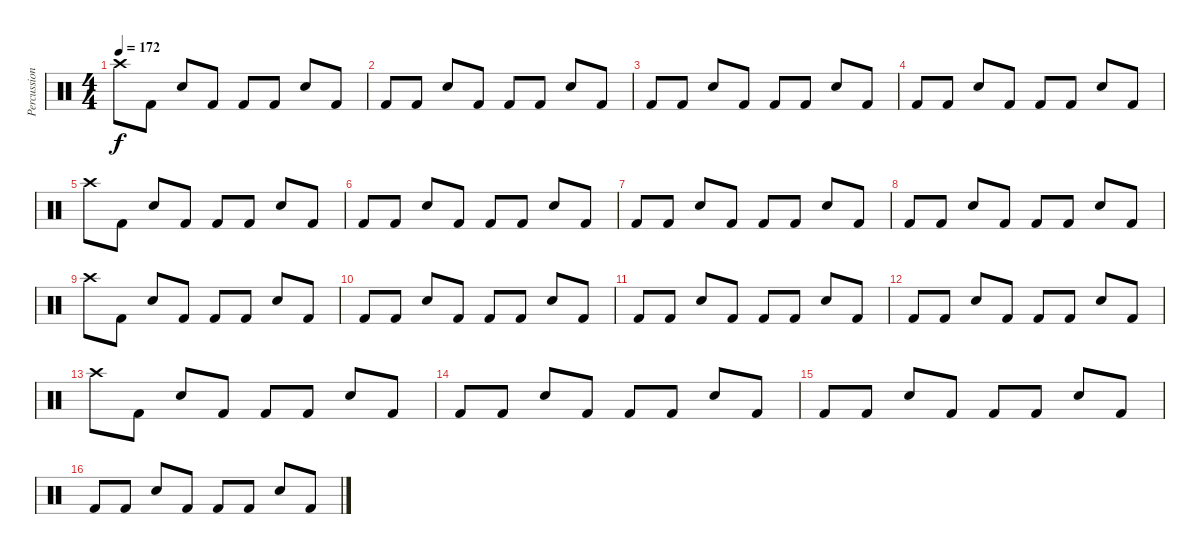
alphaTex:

\track ("Percussion" "Percussion") {instrument percussion}
\staff {score}
\articulation defaults
\ts (4 4)
\tempo 172
\clef neutral
\ks c "Crash high (hit)".8{dy f} "Kick (hit) 2".8 "Snare (hit) 2".8 "Kick (hit) 2".8 "Kick (hit) 2".8 "Kick (hit) 2".8 "Snare (hit) 2".8 "Kick (hit) 2".8
|
"Kick (hit) 2".8 "Kick (hit) 2".8 "Snare (hit) 2".8 "Kick (hit) 2".8 "Kick (hit) 2".8 "Kick (hit) 2".8 "Snare (hit) 2".8 "Kick (hit) 2".8 |
"Kick (hit) 2".8 "Kick (hit) 2".8 "Snare (hit) 2".8 "Kick (hit) 2".8 "Kick (hit) 2".8 "Kick (hit) 2".8 "Snare (hit) 2".8 "Kick (hit) 2".8 |
"Kick (hit) 2".8 "Kick (hit) 2".8 "Snare (hit) 2".8 "Kick (hit) 2".8 "Kick (hit) 2".8 "Kick (hit) 2".8 "Snare (hit) 2".8 "Kick (hit) 2".8 |
"Crash high (hit)".8 "Kick (hit) 2".8 "Snare (hit) 2".8 "Kick (hit) 2".8 "Kick (hit) 2".8 "Kick (hit) 2".8 "Snare (hit) 2".8 "Kick (hit) 2".8 |
"Kick (hit) 2".8 "Kick (hit) 2".8 "Snare (hit) 2".8 "Kick (hit) 2".8 "Kick (hit) 2".8 "Kick (hit) 2".8 "Snare (hit) 2".8 "Kick (hit) 2".8 |
"Kick (hit) 2".8 "Kick (hit) 2".8 "Snare (hit) 2".8 "Kick (hit) 2".8 "Kick (hit) 2".8 "Kick (hit) 2".8 "Snare (hit) 2".8 "Kick (hit) 2".8 |
"Kick (hit) 2".8 "Kick (hit) 2".8 "Snare (hit) 2".8 "Kick (hit) 2".8 "Kick (hit) 2".8 "Kick (hit) 2".8 "Snare (hit) 2".8 "Kick (hit) 2".8 |
"Crash high (hit)".8 "Kick (hit) 2".8 "Snare (hit) 2".8 "Kick (hit) 2".8 "Kick (hit) 2".8 "Kick (hit) 2".8 "Snare (hit) 2".8 "Kick (hit) 2".8 |
"Kick (hit) 2".8 "Kick (hit) 2".8 "Snare (hit) 2".8 "Kick (hit) 2".8 "Kick (hit) 2".8 "Kick (hit) 2".8 "Snare (hit) 2".8 "Kick (hit) 2".8 |
"Kick (hit) 2".8 "Kick (hit) 2".8 "Snare (hit) 2".8 "Kick (hit) 2".8 "Kick (hit) 2".8 "Kick (hit) 2".8 "Snare (hit) 2".8 "Kick (hit) 2".8 |
"Kick (hit) 2".8 "Kick (hit) 2".8 "Snare (hit) 2".8 "Kick (hit) 2".8 "Kick (hit) 2".8 "Kick (hit) 2".8 "Snare (hit) 2".8 "Kick (hit) 2".8 |
"Crash high (hit)".8 "Kick (hit) 2".8 "Snare (hit) 2".8 "Kick (hit) 2".8 "Kick (hit) 2".8 "Kick (hit) 2".8 "Snare (hit) 2".8 "Kick (hit) 2".8 |
"Kick (hit) 2".8 "Kick (hit) 2".8 "Snare (hit) 2".8 "Kick (hit) 2".8 "Kick (hit) 2".8 "Kick (hit) 2".8 "Snare (hit) 2".8 "Kick (hit) 2".8 |
"Kick (hit) 2".8 "Kick (hit) 2".8 "Snare (hit) 2".8 "Kick (hit) 2".8 "Kick (hit) 2".8 "Kick (hit) 2".8 "Snare (hit) 2".8 "Kick (hit) 2".8 |
"Kick (hit) 2".8 "Kick (hit) 2".8 "Snare (hit) 2".8 "Kick (hit) 2".8 "Kick (hit) 2".8 "Kick (hit) 2".8 "Snare (hit) 2".8 "Kick (hit) 2".8
